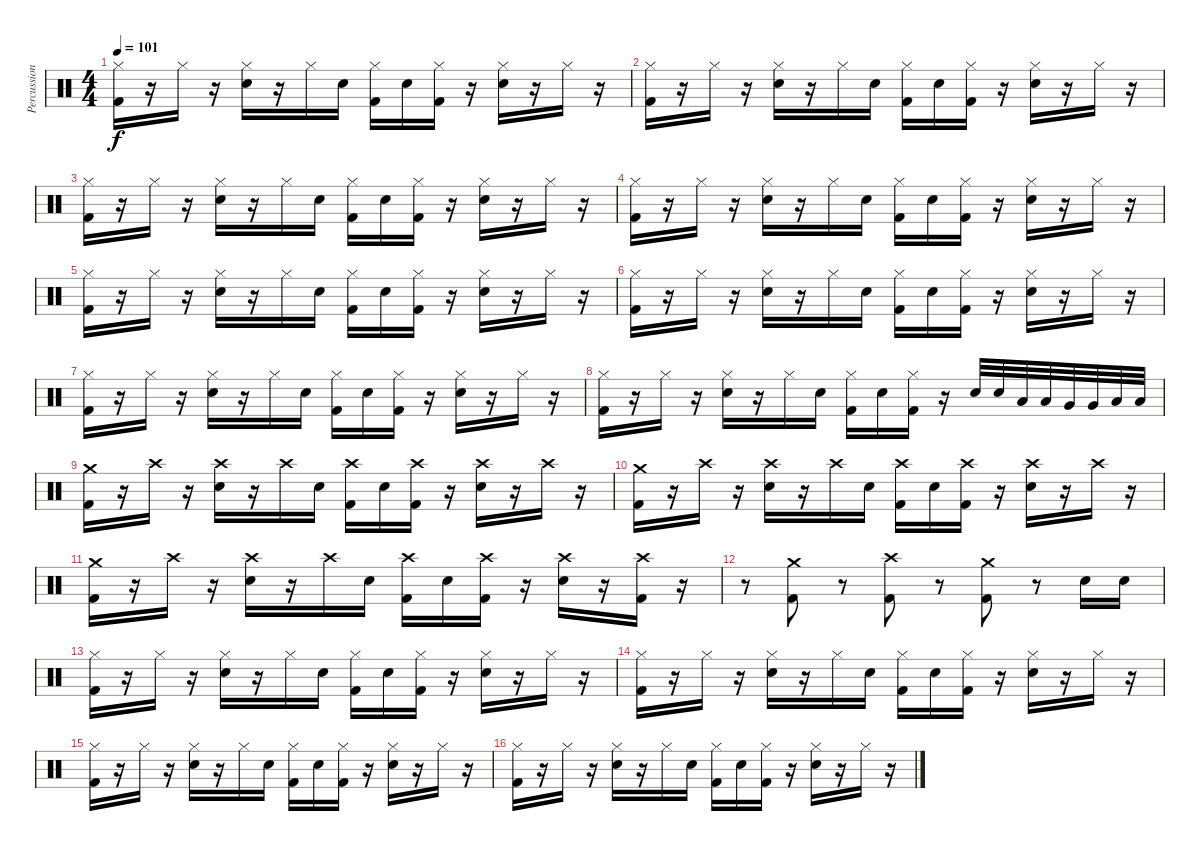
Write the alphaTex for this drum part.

\track ("Percussioni" "Percussion") {instrument percussion}
\staff {score}
\articulation defaults
\ts (4 4)
\tempo 101
\clef neutral
\ks c
("Hi-Hat (closed)" "Kick (hit) 2").16{dy f} r.16 "Hi-Hat (closed)".16 r.16 ("Hi-Hat (closed)" "Electric Snare (hit)").16 r.16 "Hi-Hat (closed)".16 "Electric Snare (hit)".16 ("Hi-Hat (closed)" "Kick (hit) 2").16 "Electric Snare (hit)".16 ("Hi-Hat (closed)" "Kick (hit) 2").16 r.16 ("Hi-Hat (closed)" "Electric Snare (hit)").16 r.16 "Hi-Hat (closed)".16 r.16 |
("Hi-Hat (closed)" "Kick (hit) 2").16 r.16 "Hi-Hat (closed)".16 r.16 ("Hi-Hat (closed)" "Electric Snare (hit)").16 r.16 "Hi-Hat (closed)".16 "Electric Snare (hit)".16 ("Hi-Hat (closed)" "Kick (hit) 2").16 "Electric Snare (hit)".16 ("Hi-Hat (closed)" "Kick (hit) 2").16 r.16 ("Hi-Hat (closed)" "Electric Snare (hit)").16 r.16 "Hi-Hat (closed)".16 r.16 |
("Hi-Hat (closed)" "Kick (hit) 2").16 r.16 "Hi-Hat (closed)".16 r.16 ("Hi-Hat (closed)" "Electric Snare (hit)").16 r.16 "Hi-Hat (closed)".16 "Electric Snare (hit)".16 ("Hi-Hat (closed)" "Kick (hit) 2").16 "Electric Snare (hit)".16 ("Hi-Hat (closed)" "Kick (hit) 2").16 r.16 ("Hi-Hat (closed)" "Electric Snare (hit)").16 r.16 "Hi-Hat (closed)".16 r.16 |
("Hi-Hat (closed)" "Kick (hit) 2").16 r.16 "Hi-Hat (closed)".16 r.16 ("Hi-Hat (closed)" "Electric Snare (hit)").16 r.16 "Hi-Hat (closed)".16 "Electric Snare (hit)".16 ("Hi-Hat (closed)" "Kick (hit) 2").16 "Electric Snare (hit)".16 ("Hi-Hat (closed)" "Kick (hit) 2").16 r.16 ("Hi-Hat (closed)" "Electric Snare (hit)").16 r.16 "Hi-Hat (closed)".16 r.16 |
("Hi-Hat (closed)" "Kick (hit) 2").16 r.16 "Hi-Hat (closed)".16 r.16 ("Hi-Hat (closed)" "Electric Snare (hit)").16 r.16 "Hi-Hat (closed)".16 "Electric Snare (hit)".16 ("Hi-Hat (closed)" "Kick (hit) 2").16 "Electric Snare (hit)".16 ("Hi-Hat (closed)" "Kick (hit) 2").16 r.16 ("Hi-Hat (closed)" "Electric Snare (hit)").16 r.16 "Hi-Hat (closed)".16 r.16 |
("Hi-Hat (closed)" "Kick (hit) 2").16 r.16 "Hi-Hat (closed)".16 r.16 ("Hi-Hat (closed)" "Electric Snare (hit)").16 r.16 "Hi-Hat (closed)".16 "Electric Snare (hit)".16 ("Hi-Hat (closed)" "Kick (hit) 2").16 "Electric Snare (hit)".16 ("Hi-Hat (closed)" "Kick (hit) 2").16 r.16 ("Hi-Hat (closed)" "Electric Snare (hit)").16 r.16 "Hi-Hat (closed)".16 r.16 |
("Hi-Hat (closed)" "Kick (hit) 2").16 r.16 "Hi-Hat (closed)".16 r.16 ("Hi-Hat (closed)" "Electric Snare (hit)").16 r.16 "Hi-Hat (closed)".16 "Electric Snare (hit)".16 ("Hi-Hat (closed)" "Kick (hit) 2").16 "Electric Snare (hit)".16 ("Hi-Hat (closed)" "Kick (hit) 2").16 r.16 ("Hi-Hat (closed)" "Electric Snare (hit)").16 r.16 "Hi-Hat (closed)".16 r.16 |
("Hi-Hat (closed)" "Kick (hit) 2").16 r.16 "Hi-Hat (closed)".16 r.16 ("Hi-Hat (closed)" "Electric Snare (hit)").16 r.16 "Hi-Hat (closed)".16 "Electric Snare (hit)".16 ("Hi-Hat (closed)" "Kick (hit) 2").16 "Electric Snare (hit)".16 ("Hi-Hat (closed)" "Kick (hit) 2").16 r.16 "Electric Snare (hit)".32 "Electric Snare (hit)".32 "Low Tom (hit)".32 "Low Tom (hit)".32 "Very Low Tom (hit)".32 "Very Low Tom (hit)".32 "Low Floor Tom (hit)".32 "Low Floor Tom (hit)".32 |
("Crash medium (hit)" "Kick (hit) 2").16 r.16 "Crash high (hit)".16 r.16 ("Crash high (hit)" "Electric Snare (hit)").16 r.16 "Crash high (hit)".16 "Electric Snare (hit)".16 ("Crash high (hit)" "Kick (hit) 2").16 "Electric Snare (hit)".16 ("Crash high (hit)" "Kick (hit) 2").16 r.16 ("Crash high (hit)" "Electric Snare (hit)").16 r.16 "Crash high (hit)".16 r.16 |
("Crash medium (hit)" "Kick (hit) 2").16 r.16 "Crash high (hit)".16 r.16 ("Crash high (hit)" "Electric Snare (hit)").16 r.16 "Crash high (hit)".16 "Electric Snare (hit)".16 ("Crash high (hit)" "Kick (hit) 2").16 "Electric Snare (hit)".16 ("Crash high (hit)" "Kick (hit) 2").16 r.16 ("Crash high (hit)" "Electric Snare (hit)").16 r.16 "Crash high (hit)".16 r.16 |
("Crash medium (hit)" "Kick (hit) 2").16 r.16 "Crash high (hit)".16 r.16 ("Crash high (hit)" "Electric Snare (hit)").16 r.16 "Crash high (hit)".16 "Electric Snare (hit)".16 ("Crash high (hit)" "Kick (hit) 2").16 "Electric Snare (hit)".16 ("Crash high (hit)" "Kick (hit) 2").16 r.16 ("Crash high (hit)" "Electric Snare (hit)").16 r.16 ("Crash high (hit)" "Kick (hit) 2").16 r.16 |
r.8 ("Crash medium (hit)" "Kick (hit) 2").8 r.8 ("Crash high (hit)" "Kick (hit) 2").8 r.8 ("Crash medium (hit)" "Kick (hit) 2").8 r.8 "Electric Snare (hit)".16 "Electric Snare (hit)".16 |
("Hi-Hat (closed)" "Kick (hit) 2").16 r.16 "Hi-Hat (closed)".16 r.16 ("Hi-Hat (closed)" "Electric Snare (hit)").16 r.16 "Hi-Hat (closed)".16 "Electric Snare (hit)".16 ("Hi-Hat (closed)" "Kick (hit) 2").16 "Electric Snare (hit)".16 ("Hi-Hat (closed)" "Kick (hit) 2").16 r.16 ("Hi-Hat (closed)" "Electric Snare (hit)").16 r.16 "Hi-Hat (closed)".16 r.16 |
("Hi-Hat (closed)" "Kick (hit) 2").16 r.16 "Hi-Hat (closed)".16 r.16 ("Hi-Hat (closed)" "Electric Snare (hit)").16 r.16 "Hi-Hat (closed)".16 "Electric Snare (hit)".16 ("Hi-Hat (closed)" "Kick (hit) 2").16 "Electric Snare (hit)".16 ("Hi-Hat (closed)" "Kick (hit) 2").16 r.16 ("Hi-Hat (closed)" "Electric Snare (hit)").16 r.16 "Hi-Hat (closed)".16 r.16 |
("Hi-Hat (closed)" "Kick (hit) 2").16 r.16 "Hi-Hat (closed)".16 r.16 ("Hi-Hat (closed)" "Electric Snare (hit)").16 r.16 "Hi-Hat (closed)".16 "Electric Snare (hit)".16 ("Hi-Hat (closed)" "Kick (hit) 2").16 "Electric Snare (hit)".16 ("Hi-Hat (closed)" "Kick (hit) 2").16 r.16 ("Hi-Hat (closed)" "Electric Snare (hit)").16 r.16 "Hi-Hat (closed)".16 r.16 |
("Hi-Hat (closed)" "Kick (hit) 2").16 r.16 "Hi-Hat (closed)".16 r.16 ("Hi-Hat (closed)" "Electric Snare (hit)").16 r.16 "Hi-Hat (closed)".16 "Electric Snare (hit)".16 ("Hi-Hat (closed)" "Kick (hit) 2").16 "Electric Snare (hit)".16 ("Hi-Hat (closed)" "Kick (hit) 2").16 r.16 ("Hi-Hat (closed)" "Electric Snare (hit)").16 r.16 "Hi-Hat (closed)".16 r.16
